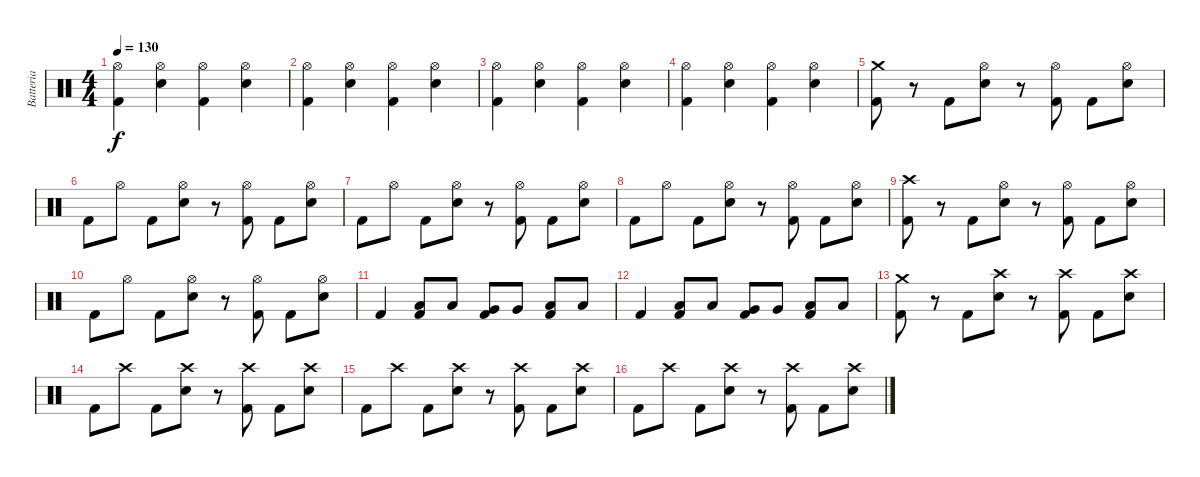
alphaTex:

\track ("Batteria" "Batteria") {instrument percussion}
\staff {score}
\articulation defaults
\ts (4 4)
\tempo 130
\clef neutral
\ks c
("Kick (hit) 2" "Hi-Hat (open)").4{dy f} ("Electric Snare (hit)" "Hi-Hat (open)").4 ("Kick (hit) 2" "Hi-Hat (open)").4 ("Electric Snare (hit)" "Hi-Hat (open)").4 |
("Kick (hit) 2" "Hi-Hat (open)").4 ("Electric Snare (hit)" "Hi-Hat (open)").4 ("Kick (hit) 2" "Hi-Hat (open)").4 ("Electric Snare (hit)" "Hi-Hat (open)").4 |
("Kick (hit) 2" "Hi-Hat (open)").4 ("Electric Snare (hit)" "Hi-Hat (open)").4 ("Kick (hit) 2" "Hi-Hat (open)").4 ("Electric Snare (hit)" "Hi-Hat (open)").4 |
("Kick (hit) 2" "Hi-Hat (open)").4 ("Electric Snare (hit)" "Hi-Hat (open)").4 ("Kick (hit) 2" "Hi-Hat (open)").4 ("Electric Snare (hit)" "Hi-Hat (open)").4 |
("Crash medium (hit)" "Kick (hit) 2").8 r.8 "Kick (hit) 2".8 ("Hi-Hat (open)" "Electric Snare (hit)").8 r.8 ("Hi-Hat (open)" "Kick (hit) 2").8 "Kick (hit) 2".8 ("Hi-Hat (open)" "Electric Snare (hit)").8 |
"Kick (hit) 2".8 "Hi-Hat (open)".8 "Kick (hit) 2".8 ("Electric Snare (hit)" "Hi-Hat (open)").8 r.8 ("Kick (hit) 2" "Hi-Hat (open)").8 "Kick (hit) 2".8 ("Electric Snare (hit)" "Hi-Hat (open)").8 |
"Kick (hit) 2".8 "Hi-Hat (open)".8 "Kick (hit) 2".8 ("Hi-Hat (open)" "Electric Snare (hit)").8 r.8 ("Hi-Hat (open)" "Kick (hit) 2").8 "Kick (hit) 2".8 ("Hi-Hat (open)" "Electric Snare (hit)").8 |
"Kick (hit) 2".8 "Hi-Hat (open)".8 "Kick (hit) 2".8 ("Electric Snare (hit)" "Hi-Hat (open)").8 r.8 ("Kick (hit) 2" "Hi-Hat (open)").8 "Kick (hit) 2".8 ("Electric Snare (hit)" "Hi-Hat (open)").8 |
("Crash high (hit)" "Kick (hit) 2").8 r.8 "Kick (hit) 2".8 ("Hi-Hat (open)" "Electric Snare (hit)").8 r.8 ("Hi-Hat (open)" "Kick (hit) 2").8 "Kick (hit) 2".8 ("Hi-Hat (open)" "Electric Snare (hit)").8 |
"Kick (hit) 2".8 "Hi-Hat (open)".8 "Kick (hit) 2".8 ("Electric Snare (hit)" "Hi-Hat (open)").8 r.8 ("Kick (hit) 2" "Hi-Hat (open)").8 "Kick (hit) 2".8 ("Electric Snare (hit)" "Hi-Hat (open)").8 |
"Kick (hit) 2".4 ("Low Tom (hit)" "Kick (hit) 2").8 "Low Tom (hit)".8 ("Very Low Tom (hit)" "Kick (hit) 2").8 "Very Low Tom (hit)".8 ("Low Floor Tom (hit)" "Kick (hit) 2").8 "Low Floor Tom (hit)".8 |
"Kick (hit) 2".4 ("Low Tom (hit)" "Kick (hit) 2").8 "Low Tom (hit)".8 ("Very Low Tom (hit)" "Kick (hit) 2").8 "Very Low Tom (hit)".8 ("Low Floor Tom (hit)" "Kick (hit) 2").8 "Low Floor Tom (hit)".8 |
("Crash medium (hit)" "Kick (hit) 2").8 r.8 "Kick (hit) 2".8 ("Crash high (hit)" "Electric Snare (hit)").8 r.8 ("Crash high (hit)" "Kick (hit) 2").8 "Kick (hit) 2".8 ("Crash high (hit)" "Electric Snare (hit)").8 |
"Kick (hit) 2".8 "Crash high (hit)".8 "Kick (hit) 2".8 ("Electric Snare (hit)" "Crash high (hit)").8 r.8 ("Kick (hit) 2" "Crash high (hit)").8 "Kick (hit) 2".8 ("Electric Snare (hit)" "Crash high (hit)").8 |
"Kick (hit) 2".8 "Crash high (hit)".8 "Kick (hit) 2".8 ("Crash high (hit)" "Electric Snare (hit)").8 r.8 ("Crash high (hit)" "Kick (hit) 2").8 "Kick (hit) 2".8 ("Crash high (hit)" "Electric Snare (hit)").8 |
"Kick (hit) 2".8 "Crash high (hit)".8 "Kick (hit) 2".8 ("Electric Snare (hit)" "Crash high (hit)").8 r.8 ("Kick (hit) 2" "Crash high (hit)").8 "Kick (hit) 2".8 ("Electric Snare (hit)" "Crash high (hit)").8
